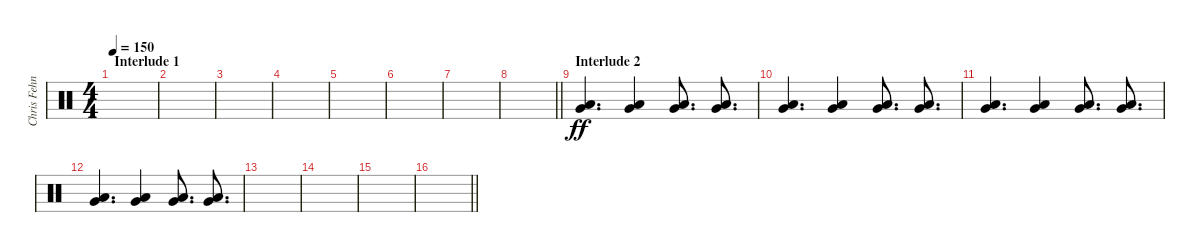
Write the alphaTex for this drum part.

\track ("Chris Fehn" "Chris Fehn") {instrument percussion}
\staff {score}
\articulation defaults
\ts (4 4)
\section ("" "Interlude 1")
\tempo 150
\clef neutral
\ks c
|
|
|
|
|
|
|
\barLineRight lightlight
|
\section ("" "Interlude 2")
("Very Low Tom (hit)" "Low Floor Tom (hit)").4{d dy ff} ("Very Low Tom (hit)" "Low Floor Tom (hit)").4 ("Very Low Tom (hit)" "Low Floor Tom (hit)").8{d} ("Very Low Tom (hit)" "Low Floor Tom (hit)").8{d} |
("Very Low Tom (hit)" "Low Floor Tom (hit)").4{d} ("Very Low Tom (hit)" "Low Floor Tom (hit)").4 ("Very Low Tom (hit)" "Low Floor Tom (hit)").8{d} ("Very Low Tom (hit)" "Low Floor Tom (hit)").8{d} |
("Very Low Tom (hit)" "Low Floor Tom (hit)").4{d} ("Very Low Tom (hit)" "Low Floor Tom (hit)").4 ("Very Low Tom (hit)" "Low Floor Tom (hit)").8{d} ("Very Low Tom (hit)" "Low Floor Tom (hit)").8{d} |
("Very Low Tom (hit)" "Low Floor Tom (hit)").4{d} ("Very Low Tom (hit)" "Low Floor Tom (hit)").4 ("Very Low Tom (hit)" "Low Floor Tom (hit)").8{d} ("Very Low Tom (hit)" "Low Floor Tom (hit)").8{d} |
|
|
|
\barLineRight lightlight
